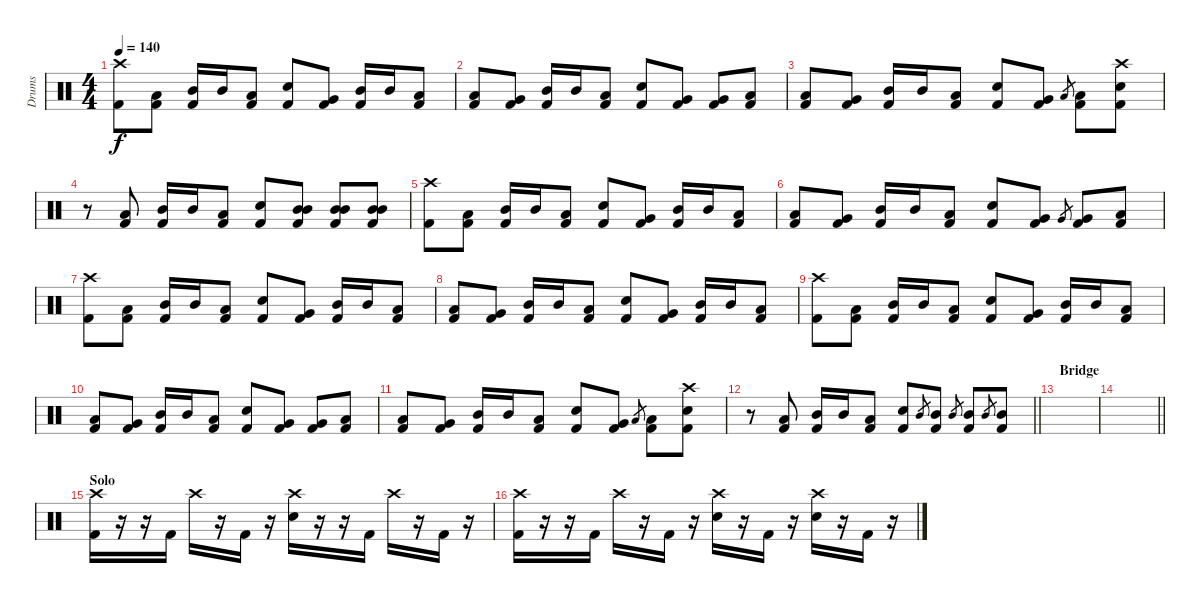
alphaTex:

\track ("Drums" "Drums") {instrument percussion}
\staff {score}
\articulation defaults
\ts (4 4)
\tempo 140
\clef neutral
\ks c
("Crash high (hit)" "Kick (hit) 2").8{dy f} ("Low Floor Tom (hit)" "Kick (hit) 2").8 ("Mid Tom (hit)" "Kick (hit) 2").16 "Mid Tom (hit)".16 ("Low Tom (hit)" "Kick (hit) 2").8 ("Snare (hit) 2" "Kick (hit) 2").8 ("Very Low Tom (hit)" "Kick (hit) 2").8 ("Mid Tom (hit)" "Kick (hit) 2").16 "Mid Tom (hit)".16 ("Low Tom (hit)" "Kick (hit) 2").8 |
("Low Floor Tom (hit)" "Kick (hit) 2").8 ("Very Low Tom (hit)" "Kick (hit) 2").8 ("Mid Tom (hit)" "Kick (hit) 2").16 "Mid Tom (hit)".16 ("Low Tom (hit)" "Kick (hit) 2").8 ("Snare (hit) 2" "Kick (hit) 2").8 ("Very Low Tom (hit)" "Kick (hit) 2").8 ("Very Low Tom (hit)" "Kick (hit) 2").8 ("Low Tom (hit)" "Kick (hit) 2").8 |
("Low Floor Tom (hit)" "Kick (hit) 2").8 ("Very Low Tom (hit)" "Kick (hit) 2").8 ("Mid Tom (hit)" "Kick (hit) 2").16 "Mid Tom (hit)".16 ("Low Tom (hit)" "Kick (hit) 2").8 ("Snare (hit) 2" "Kick (hit) 2").8 ("Very Low Tom (hit)" "Kick (hit) 2").8 "Low Tom (hit)".8{gr} ("Low Tom (hit)" "Kick (hit) 2").8 ("Crash high (hit)" "Snare (hit) 2" "Kick (hit) 2").8 |
r.8 ("Low Tom (hit)" "Kick (hit) 2").8 ("Mid Tom (hit)" "Kick (hit) 2").16 "Mid Tom (hit)".16 ("Low Tom (hit)" "Kick (hit) 2").8 ("Snare (hit) 2" "Kick (hit) 2").8 ("Mid Tom (hit)" "Mid Tom (hit)" "Kick (hit) 2").8 ("Mid Tom (hit)" "Mid Tom (hit)" "Kick (hit) 2").8 ("Mid Tom (hit)" "Mid Tom (hit)" "Kick (hit) 2").8 |
("Crash high (hit)" "Kick (hit) 2").8 ("Low Floor Tom (hit)" "Kick (hit) 2").8 ("Mid Tom (hit)" "Kick (hit) 2").16 "Mid Tom (hit)".16 ("Low Tom (hit)" "Kick (hit) 2").8 ("Snare (hit) 2" "Kick (hit) 2").8 ("Very Low Tom (hit)" "Kick (hit) 2").8 ("Mid Tom (hit)" "Kick (hit) 2").16 "Mid Tom (hit)".16 ("Low Tom (hit)" "Kick (hit) 2").8 |
("Low Floor Tom (hit)" "Kick (hit) 2").8 ("Very Low Tom (hit)" "Kick (hit) 2").8 ("Mid Tom (hit)" "Kick (hit) 2").16 "Mid Tom (hit)".16 ("Low Tom (hit)" "Kick (hit) 2").8 ("Snare (hit) 2" "Kick (hit) 2").8 ("Very Low Tom (hit)" "Kick (hit) 2").8 "Very Low Tom (hit)".8{gr} ("Very Low Tom (hit)" "Kick (hit) 2").8 ("Low Tom (hit)" "Kick (hit) 2").8 |
("Crash high (hit)" "Kick (hit) 2").8 ("Low Floor Tom (hit)" "Kick (hit) 2").8 ("Mid Tom (hit)" "Kick (hit) 2").16 "Mid Tom (hit)".16 ("Low Tom (hit)" "Kick (hit) 2").8 ("Snare (hit) 2" "Kick (hit) 2").8 ("Very Low Tom (hit)" "Kick (hit) 2").8 ("Mid Tom (hit)" "Kick (hit) 2").16 "Mid Tom (hit)".16 ("Low Tom (hit)" "Kick (hit) 2").8 |
("Low Floor Tom (hit)" "Kick (hit) 2").8 ("Very Low Tom (hit)" "Kick (hit) 2").8 ("Mid Tom (hit)" "Kick (hit) 2").16 "Mid Tom (hit)".16 ("Low Tom (hit)" "Kick (hit) 2").8 ("Snare (hit) 2" "Kick (hit) 2").8 ("Very Low Tom (hit)" "Kick (hit) 2").8 ("Mid Tom (hit)" "Kick (hit) 2").16 "Mid Tom (hit)".16 ("Low Tom (hit)" "Kick (hit) 2").8 |
("Crash high (hit)" "Kick (hit) 2").8 ("Low Floor Tom (hit)" "Kick (hit) 2").8 ("Mid Tom (hit)" "Kick (hit) 2").16 "Mid Tom (hit)".16 ("Low Tom (hit)" "Kick (hit) 2").8 ("Snare (hit) 2" "Kick (hit) 2").8 ("Very Low Tom (hit)" "Kick (hit) 2").8 ("Mid Tom (hit)" "Kick (hit) 2").16 "Mid Tom (hit)".16 ("Low Tom (hit)" "Kick (hit) 2").8 |
("Low Floor Tom (hit)" "Kick (hit) 2").8 ("Very Low Tom (hit)" "Kick (hit) 2").8 ("Mid Tom (hit)" "Kick (hit) 2").16 "Mid Tom (hit)".16 ("Low Tom (hit)" "Kick (hit) 2").8 ("Snare (hit) 2" "Kick (hit) 2").8 ("Very Low Tom (hit)" "Kick (hit) 2").8 ("Very Low Tom (hit)" "Kick (hit) 2").8 ("Low Tom (hit)" "Kick (hit) 2").8 |
("Low Floor Tom (hit)" "Kick (hit) 2").8 ("Very Low Tom (hit)" "Kick (hit) 2").8 ("Mid Tom (hit)" "Kick (hit) 2").16 "Mid Tom (hit)".16 ("Low Tom (hit)" "Kick (hit) 2").8 ("Snare (hit) 2" "Kick (hit) 2").8 ("Very Low Tom (hit)" "Kick (hit) 2").8 "Low Tom (hit)".8{gr} ("Low Tom (hit)" "Kick (hit) 2").8 ("Crash high (hit)" "Snare (hit) 2" "Kick (hit) 2").8 |
\barLineRight lightlight
r.8 ("Low Tom (hit)" "Kick (hit) 2").8 ("Mid Tom (hit)" "Kick (hit) 2").16 "Mid Tom (hit)".16 ("Low Tom (hit)" "Kick (hit) 2").8 ("Snare (hit) 2" "Kick (hit) 2").8 "Mid Tom (hit)".8{gr} ("Mid Tom (hit)" "Kick (hit) 2").8 "Mid Tom (hit)".8{gr} ("Mid Tom (hit)" "Kick (hit) 2").8 "Mid Tom (hit)".8{gr} ("Mid Tom (hit)" "Kick (hit) 2").8 |
\section ("" "Bridge")
|
\barLineRight lightlight
|
\section ("" "Solo")
("Crash high (hit)" "Kick (hit) 2").16 r.16 r.16 "Kick (hit) 2".16 "Crash high (hit)".16 r.16 "Kick (hit) 2".16 r.16 ("Crash high (hit)" "Snare (hit) 2").16 r.16 r.16 "Kick (hit) 2".16 "Crash high (hit)".16 r.16 "Kick (hit) 2".16 r.16 |
("Crash high (hit)" "Kick (hit) 2").16 r.16 r.16 "Kick (hit) 2".16 "Crash high (hit)".16 r.16 "Kick (hit) 2".16 r.16 ("Crash high (hit)" "Snare (hit) 2").16 r.16 "Kick (hit) 2".16 r.16 ("Crash high (hit)" "Snare (hit) 2").16 r.16 "Kick (hit) 2".16 r.16
